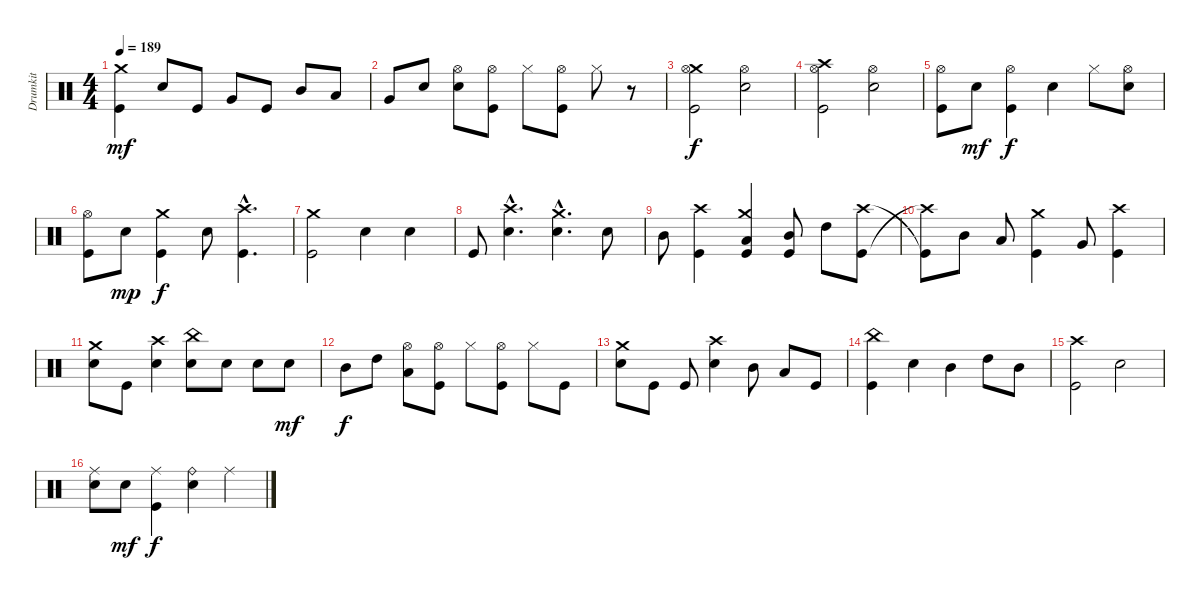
\track ("Drumkit" "Drumkit") {instrument percussion}
\staff {score}
\articulation defaults
\ts (4 4)
\tempo 189
\clef neutral
\ks c
("Kick (hit)" "Crash medium (hit)").4{dy mf} "Snare (hit) 2".8 "Kick (hit)".8 "Very Low Tom (hit)".8 "Kick (hit)".8 "Mid Tom (hit)".8 "Low Tom (hit)".8 |
"Very Low Tom (hit)".8 "Snare (hit) 2".8 ("Snare (hit) 2" "Hi-Hat (open)").8 ("Kick (hit)" "Hi-Hat (open)").8 "Hi-Hat (closed)".8 ("Kick (hit)" "Hi-Hat (open)").8 "Hi-Hat (closed)".8 r.8 |
("Kick (hit)" "Crash medium (hit)" "Hi-Hat (open)").2{dy f} ("Hi-Hat (open)" "Snare (hit) 2").2 |
("Kick (hit)" "Crash high (hit)" "Hi-Hat (open)").2 ("Snare (hit) 2" "Hi-Hat (open)").2 |
("Kick (hit)" "Hi-Hat (open)").8 "Snare (hit) 2".8{dy mf} ("Kick (hit)" "Hi-Hat (open)").4{dy f} "Snare (hit) 2".4 "Hi-Hat (closed)".8 ("Hi-Hat (open)" "Snare (hit) 2").8 |
("Kick (hit)" "Hi-Hat (open)").8 "Snare (hit) 2".8{dy mp} ("Kick (hit)" "Crash medium (hit)").4{dy f} "Snare (hit) 2".8 ("Crash high (hit)"{hac} "Kick (hit)"{hac}).4{d} |
("Kick (hit)" "Crash medium (hit)").2 "Snare (hit) 2".4 "Snare (hit) 2".4 |
"Kick (hit)".8 ("Snare (hit) 2"{hac} "Crash high (hit)"{hac}).4{d} ("Snare (hit) 2"{hac} "Crash medium (hit)"{hac}).4{d} "Snare (hit) 2".8 |
"Mid Tom (hit)".8 ("Kick (hit)" "Crash high (hit)").4 ("Kick (hit)" "Low Tom (hit)" "Crash medium (hit)").4 ("Kick (hit)" "Mid Tom (hit)").8 "High Tom (hit)".8 ("Kick (hit)" "Crash high (hit)").8 |
("Crash high (hit)"{t} "Kick (hit)"{t}).8 "Mid Tom (hit)".8 "Low Tom (hit)".8 ("Kick (hit)" "Crash medium (hit)").4 "Very Low Tom (hit)".8 ("Kick (hit)" "Crash high (hit)").4 |
("Crash medium (hit)" "Snare (hit) 2").8 "Kick (hit)".8 ("Snare (hit) 2" "Crash high (hit)").4 ("Snare (hit) 2" "China (hit)").8 "Snare (hit) 2".8 "Snare (hit) 2".8 "Snare (hit) 2".8{dy mf} |
"Mid Tom (hit)".8{dy f} "High Tom (hit)".8 ("Hi-Hat (open)" "Low Tom (hit)").8 ("Kick (hit)" "Hi-Hat (open)").8 "Hi-Hat (closed)".8 ("Kick (hit)" "Hi-Hat (open)").8 "Hi-Hat (closed)".8 "Kick (hit)".8 |
("Snare (hit) 2" "Crash medium (hit)").8 "Kick (hit)".8 "Kick (hit)".8 ("Snare (hit) 2" "Crash high (hit)").4 "Mid Tom (hit)".8 "Low Tom (hit)".8 "Kick (hit)".8 |
("Kick (hit)" "China (hit)").4 "Snare (hit) 2".4 "Mid Tom (hit)".4 "High Tom (hit)".8 "Mid Tom (hit)".8 |
("Kick (hit)" "Crash high (hit)").2 "Snare (hit) 2".2 |
("Snare (hit) 2" "Ride (middle)").8 "Snare (hit) 2".8{dy mf} ("Kick (hit)" "Ride (middle)").4{dy f} ("Ride (bell)" "Snare (hit) 2").4 "Ride (middle)".4
